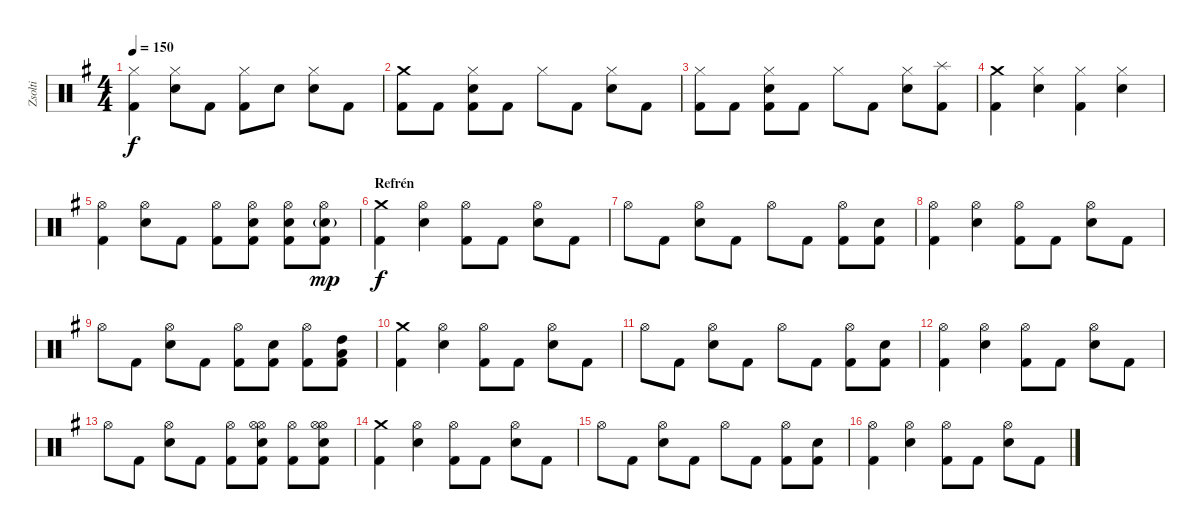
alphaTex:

\track ("Zsolti" "Zsolti") {instrument percussion}
\staff {score}
\articulation defaults
\ts (4 4)
\tempo 150
\clef neutral
\ks eminor
("Hi-Hat (closed)" "Kick (hit) 2").4{dy f} ("Hi-Hat (closed)" "Snare (hit) 2").8 "Kick (hit) 2".8 ("Hi-Hat (closed)" "Kick (hit) 2").8 "Snare (hit) 2".8 ("Hi-Hat (closed)" "Snare (hit) 2").8 "Kick (hit) 2".8 |
("Crash medium (hit)" "Kick (hit) 2").8 "Kick (hit) 2".8 ("Hi-Hat (closed)" "Snare (hit) 2" "Kick (hit) 2").8 "Kick (hit) 2".8 "Hi-Hat (closed)".8 "Kick (hit) 2".8 ("Hi-Hat (closed)" "Snare (hit) 2").8 "Kick (hit) 2".8 |
("Hi-Hat (closed)" "Kick (hit) 2").8 "Kick (hit) 2".8 ("Hi-Hat (closed)" "Snare (hit) 2" "Kick (hit) 2").8 "Kick (hit) 2".8 "Hi-Hat (closed)".8 "Kick (hit) 2".8 ("Hi-Hat (closed)" "Snare (hit) 2").8 ("Splash (hit)" "Kick (hit) 2").8 |
("Crash medium (hit)" "Kick (hit) 2").4 ("Hi-Hat (closed)" "Snare (hit) 2").4 ("Hi-Hat (closed)" "Kick (hit) 2").4 ("Hi-Hat (closed)" "Snare (hit) 2").4 |
("Hi-Hat (open)" "Kick (hit) 2").4 ("Hi-Hat (open)" "Snare (hit) 2").8 "Kick (hit) 2".8 ("Hi-Hat (open)" "Kick (hit) 2").8 ("Hi-Hat (open)" "Snare (hit) 2" "Kick (hit) 2").8 ("Hi-Hat (open)" "Snare (hit) 2" "Kick (hit) 2").8 ("Hi-Hat (open)" "Snare (hit) 2"{g} "Kick (hit) 2").8{dy mp} |
\section ("" "Refrén")
("Crash medium (hit)" "Kick (hit) 2").4{dy f} ("Hi-Hat (open)" "Snare (hit) 2").4 ("Hi-Hat (open)" "Kick (hit) 2").8 "Kick (hit) 2".8 ("Hi-Hat (open)" "Snare (hit) 2").8 "Kick (hit) 2".8 |
"Hi-Hat (open)".8 "Kick (hit) 2".8 ("Hi-Hat (open)" "Snare (hit) 2").8 "Kick (hit) 2".8 "Hi-Hat (open)".8 "Kick (hit) 2".8 ("Hi-Hat (open)" "Kick (hit) 2").8 ("Snare (hit) 2" "Kick (hit) 2").8 |
("Hi-Hat (open)" "Kick (hit) 2").4 ("Hi-Hat (open)" "Snare (hit) 2").4 ("Hi-Hat (open)" "Kick (hit) 2").8 "Kick (hit) 2".8 ("Hi-Hat (open)" "Snare (hit) 2").8 "Kick (hit) 2".8 |
"Hi-Hat (open)".8 "Kick (hit) 2".8 ("Hi-Hat (open)" "Snare (hit) 2").8 "Kick (hit) 2".8 ("Hi-Hat (open)" "Kick (hit) 2").8 ("Snare (hit) 2" "Kick (hit) 2").8 ("Hi-Hat (open)" "Kick (hit) 2").8 ("High Tom (hit)" "Low Tom (hit)" "Kick (hit) 2").8 |
("Crash medium (hit)" "Kick (hit) 2").4 ("Hi-Hat (open)" "Snare (hit) 2").4 ("Hi-Hat (open)" "Kick (hit) 2").8 "Kick (hit) 2".8 ("Hi-Hat (open)" "Snare (hit) 2").8 "Kick (hit) 2".8 |
"Hi-Hat (open)".8 "Kick (hit) 2".8 ("Hi-Hat (open)" "Snare (hit) 2").8 "Kick (hit) 2".8 "Hi-Hat (open)".8 "Kick (hit) 2".8 ("Hi-Hat (open)" "Kick (hit) 2").8 ("Snare (hit) 2" "Kick (hit) 2").8 |
("Hi-Hat (open)" "Kick (hit) 2").4 ("Hi-Hat (open)" "Snare (hit) 2").4 ("Hi-Hat (open)" "Kick (hit) 2").8 "Kick (hit) 2".8 ("Hi-Hat (open)" "Snare (hit) 2").8 "Kick (hit) 2".8 |
"Hi-Hat (open)".8 "Kick (hit) 2".8 ("Hi-Hat (open)" "Snare (hit) 2").8 "Kick (hit) 2".8 ("Hi-Hat (open)" "Kick (hit) 2").8 ("Hi-Hat (open)" "Hi-Hat (open)" "Snare (hit) 2" "Kick (hit) 2").8 ("Hi-Hat (open)" "Kick (hit) 2").8 ("Hi-Hat (open)" "Hi-Hat (open)" "Snare (hit) 2" "Kick (hit) 2").8 |
("Crash medium (hit)" "Kick (hit) 2").4 ("Hi-Hat (open)" "Snare (hit) 2").4 ("Hi-Hat (open)" "Kick (hit) 2").8 "Kick (hit) 2".8 ("Hi-Hat (open)" "Snare (hit) 2").8 "Kick (hit) 2".8 |
"Hi-Hat (open)".8 "Kick (hit) 2".8 ("Hi-Hat (open)" "Snare (hit) 2").8 "Kick (hit) 2".8 "Hi-Hat (open)".8 "Kick (hit) 2".8 ("Hi-Hat (open)" "Kick (hit) 2").8 ("Snare (hit) 2" "Kick (hit) 2").8 |
("Hi-Hat (open)" "Kick (hit) 2").4 ("Hi-Hat (open)" "Snare (hit) 2").4 ("Hi-Hat (open)" "Kick (hit) 2").8 "Kick (hit) 2".8 ("Hi-Hat (open)" "Snare (hit) 2").8 "Kick (hit) 2".8
